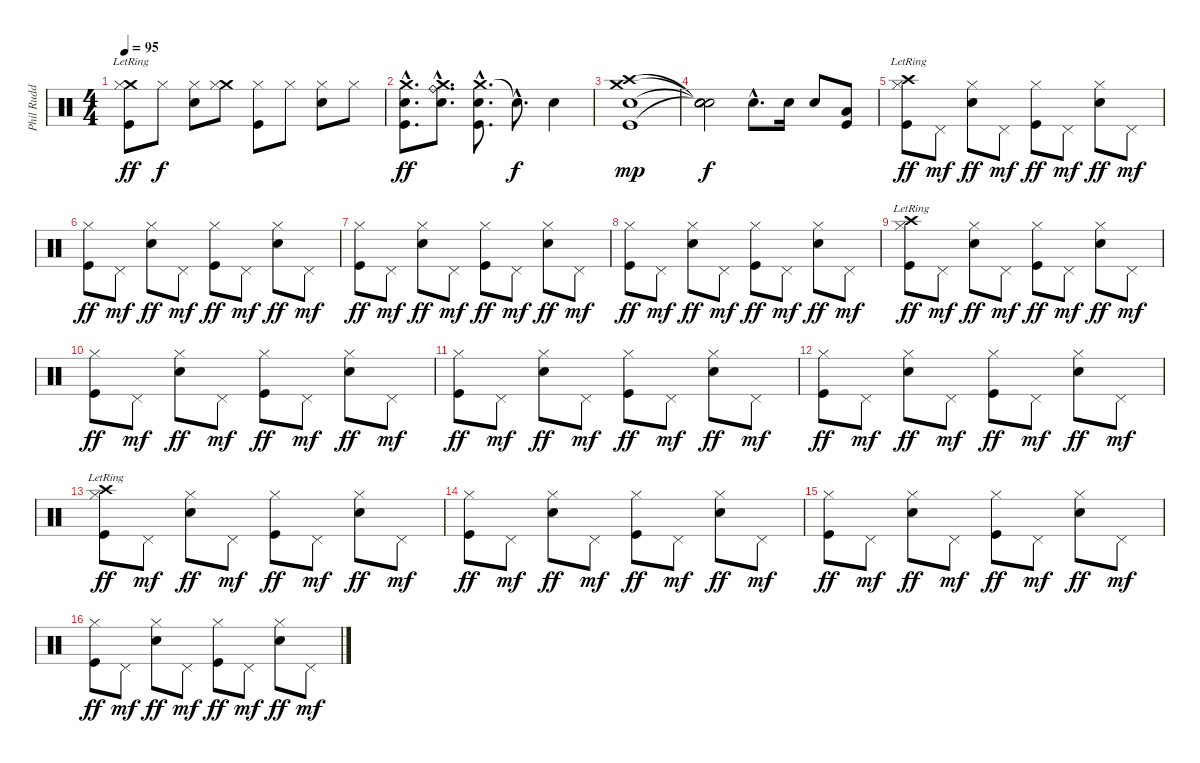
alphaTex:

\track ("Phil Rudd" "Phil Rudd") {instrument percussion}
\staff {score}
\articulation defaults
\ts (4 4)
\tempo 95
\clef neutral
\ks c
("Crash medium (hit)"{lr} "Hi-Hat (closed)" "Kick (hit)").8{dy ff} "Hi-Hat (closed)".8{dy f} ("Hi-Hat (closed)" "Snare (hit) 2").8 ("Crash medium (hit)" "Hi-Hat (closed)").8 ("Hi-Hat (closed)" "Kick (hit)").8 "Hi-Hat (closed)".8 ("Hi-Hat (closed)" "Snare (hit) 2").8 "Hi-Hat (closed)".8 |
("Crash medium (hit)"{hac} "Kick (hit)"{hac} "Snare (hit) 2"{hac}).8{d dy ff} ("Crash medium (hit)"{hac} "Ride (bell)"{hac} "Snare (hit) 2"{hac}).8{d} ("Crash medium (hit)"{hac} "Kick (hit)"{hac} "Snare (hit) 2"{hac}).8{d} "Snare (hit)"{hac t}.8{d dy f} "Snare (hit) 2".4 |
("Crash high (hit)" "Crash medium (hit)" "Kick (hit)" "Snare (hit) 2").1{dy mp} |
("Snare (hit)"{t} "Snare (hit)"{t} "Snare (hit)"{t} "Snare (hit)"{t}).2{dy f} "Snare (hit) 2"{hac}.8{d} "Snare (hit) 2".16 "Snare (hit) 2".8 ("Kick (hit)" "Low Floor Tom (hit)").8 |
("Crash high (hit)"{lr} "Hi-Hat (closed)" "Kick (hit)").8{dy ff} "Pedal Hi-Hat (hit)".8{dy mf} ("Hi-Hat (closed)" "Snare (hit) 2").8{dy ff} "Pedal Hi-Hat (hit)".8{dy mf} ("Hi-Hat (closed)" "Kick (hit)").8{dy ff} "Pedal Hi-Hat (hit)".8{dy mf} ("Hi-Hat (closed)" "Snare (hit) 2").8{dy ff} "Pedal Hi-Hat (hit)".8{dy mf} |
("Hi-Hat (closed)" "Kick (hit)").8{dy ff} "Pedal Hi-Hat (hit)".8{dy mf} ("Hi-Hat (closed)" "Snare (hit) 2").8{dy ff} "Pedal Hi-Hat (hit)".8{dy mf} ("Hi-Hat (closed)" "Kick (hit)").8{dy ff} "Pedal Hi-Hat (hit)".8{dy mf} ("Hi-Hat (closed)" "Snare (hit) 2").8{dy ff} "Pedal Hi-Hat (hit)".8{dy mf} |
("Hi-Hat (closed)" "Kick (hit)").8{dy ff} "Pedal Hi-Hat (hit)".8{dy mf} ("Hi-Hat (closed)" "Snare (hit) 2").8{dy ff} "Pedal Hi-Hat (hit)".8{dy mf} ("Hi-Hat (closed)" "Kick (hit)").8{dy ff} "Pedal Hi-Hat (hit)".8{dy mf} ("Hi-Hat (closed)" "Snare (hit) 2").8{dy ff} "Pedal Hi-Hat (hit)".8{dy mf} |
("Hi-Hat (closed)" "Kick (hit)").8{dy ff} "Pedal Hi-Hat (hit)".8{dy mf} ("Hi-Hat (closed)" "Snare (hit) 2").8{dy ff} "Pedal Hi-Hat (hit)".8{dy mf} ("Hi-Hat (closed)" "Kick (hit)").8{dy ff} "Pedal Hi-Hat (hit)".8{dy mf} ("Hi-Hat (closed)" "Snare (hit) 2").8{dy ff} "Pedal Hi-Hat (hit)".8{dy mf} |
("Crash high (hit)"{lr} "Hi-Hat (closed)" "Kick (hit)").8{dy ff} "Pedal Hi-Hat (hit)".8{dy mf} ("Hi-Hat (closed)" "Snare (hit) 2").8{dy ff} "Pedal Hi-Hat (hit)".8{dy mf} ("Hi-Hat (closed)" "Kick (hit)").8{dy ff} "Pedal Hi-Hat (hit)".8{dy mf} ("Hi-Hat (closed)" "Snare (hit) 2").8{dy ff} "Pedal Hi-Hat (hit)".8{dy mf} |
("Hi-Hat (closed)" "Kick (hit)").8{dy ff} "Pedal Hi-Hat (hit)".8{dy mf} ("Hi-Hat (closed)" "Snare (hit) 2").8{dy ff} "Pedal Hi-Hat (hit)".8{dy mf} ("Hi-Hat (closed)" "Kick (hit)").8{dy ff} "Pedal Hi-Hat (hit)".8{dy mf} ("Hi-Hat (closed)" "Snare (hit) 2").8{dy ff} "Pedal Hi-Hat (hit)".8{dy mf} |
("Hi-Hat (closed)" "Kick (hit)").8{dy ff} "Pedal Hi-Hat (hit)".8{dy mf} ("Hi-Hat (closed)" "Snare (hit) 2").8{dy ff} "Pedal Hi-Hat (hit)".8{dy mf} ("Hi-Hat (closed)" "Kick (hit)").8{dy ff} "Pedal Hi-Hat (hit)".8{dy mf} ("Hi-Hat (closed)" "Snare (hit) 2").8{dy ff} "Pedal Hi-Hat (hit)".8{dy mf} |
("Hi-Hat (closed)" "Kick (hit)").8{dy ff} "Pedal Hi-Hat (hit)".8{dy mf} ("Hi-Hat (closed)" "Snare (hit) 2").8{dy ff} "Pedal Hi-Hat (hit)".8{dy mf} ("Hi-Hat (closed)" "Kick (hit)").8{dy ff} "Pedal Hi-Hat (hit)".8{dy mf} ("Hi-Hat (closed)" "Snare (hit) 2").8{dy ff} "Pedal Hi-Hat (hit)".8{dy mf} |
("Crash high (hit)"{lr} "Hi-Hat (closed)" "Kick (hit)").8{dy ff} "Pedal Hi-Hat (hit)".8{dy mf} ("Hi-Hat (closed)" "Snare (hit) 2").8{dy ff} "Pedal Hi-Hat (hit)".8{dy mf} ("Hi-Hat (closed)" "Kick (hit)").8{dy ff} "Pedal Hi-Hat (hit)".8{dy mf} ("Hi-Hat (closed)" "Snare (hit) 2").8{dy ff} "Pedal Hi-Hat (hit)".8{dy mf} |
("Hi-Hat (closed)" "Kick (hit)").8{dy ff} "Pedal Hi-Hat (hit)".8{dy mf} ("Hi-Hat (closed)" "Snare (hit) 2").8{dy ff} "Pedal Hi-Hat (hit)".8{dy mf} ("Hi-Hat (closed)" "Kick (hit)").8{dy ff} "Pedal Hi-Hat (hit)".8{dy mf} ("Hi-Hat (closed)" "Snare (hit) 2").8{dy ff} "Pedal Hi-Hat (hit)".8{dy mf} |
("Hi-Hat (closed)" "Kick (hit)").8{dy ff} "Pedal Hi-Hat (hit)".8{dy mf} ("Hi-Hat (closed)" "Snare (hit) 2").8{dy ff} "Pedal Hi-Hat (hit)".8{dy mf} ("Hi-Hat (closed)" "Kick (hit)").8{dy ff} "Pedal Hi-Hat (hit)".8{dy mf} ("Hi-Hat (closed)" "Snare (hit) 2").8{dy ff} "Pedal Hi-Hat (hit)".8{dy mf} |
("Hi-Hat (closed)" "Kick (hit)").8{dy ff} "Pedal Hi-Hat (hit)".8{dy mf} ("Hi-Hat (closed)" "Snare (hit) 2").8{dy ff} "Pedal Hi-Hat (hit)".8{dy mf} ("Hi-Hat (closed)" "Kick (hit)").8{dy ff} "Pedal Hi-Hat (hit)".8{dy mf} ("Hi-Hat (closed)" "Snare (hit) 2").8{dy ff} "Pedal Hi-Hat (hit)".8{dy mf}
